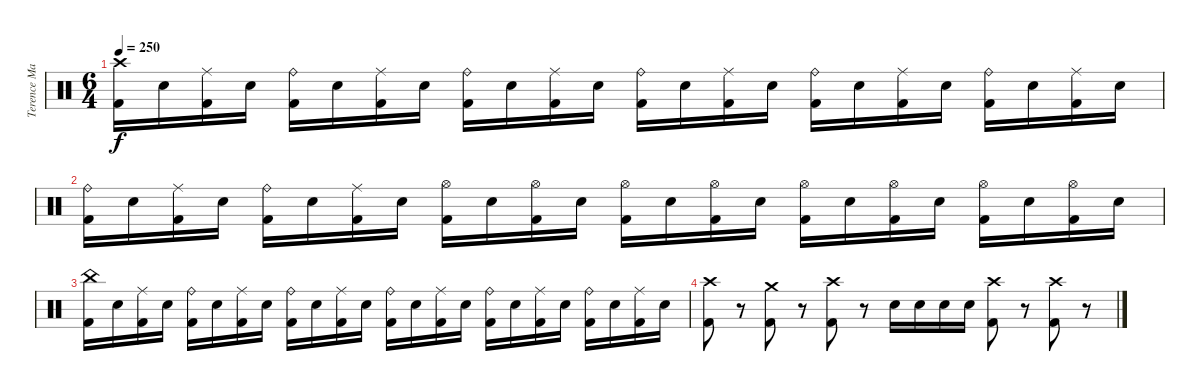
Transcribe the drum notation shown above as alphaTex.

\track ("Terence Manauis" "Terence Ma") {instrument percussion}
\staff {score}
\articulation defaults
\ts (6 4)
\tempo 250
\clef neutral
\ks c
("Crash high (hit)" "Kick (hit) 2").16{dy f} "Electric Snare (hit)".16 ("Ride (middle)" "Kick (hit) 2").16 "Electric Snare (hit)".16 ("Ride (bell)" "Kick (hit) 2").16 "Electric Snare (hit)".16 ("Ride (middle)" "Kick (hit) 2").16 "Electric Snare (hit)".16 ("Ride (bell)" "Kick (hit) 2").16 "Electric Snare (hit)".16 ("Ride (middle)" "Kick (hit) 2").16 "Electric Snare (hit)".16 ("Ride (bell)" "Kick (hit) 2").16 "Electric Snare (hit)".16 ("Ride (middle)" "Kick (hit) 2").16 "Electric Snare (hit)".16 ("Ride (bell)" "Kick (hit) 2").16 "Electric Snare (hit)".16 ("Ride (middle)" "Kick (hit) 2").16 "Electric Snare (hit)".16 ("Ride (bell)" "Kick (hit) 2").16 "Electric Snare (hit)".16 ("Ride (middle)" "Kick (hit) 2").16 "Electric Snare (hit)".16 |
("Ride (bell)" "Kick (hit) 2").16 "Electric Snare (hit)".16 ("Ride (middle)" "Kick (hit) 2").16 "Electric Snare (hit)".16 ("Ride (bell)" "Kick (hit) 2").16 "Electric Snare (hit)".16 ("Ride (middle)" "Kick (hit) 2").16 "Electric Snare (hit)".16 ("Hi-Hat (open)" "Kick (hit) 2").16 "Electric Snare (hit)".16 ("Hi-Hat (open)" "Kick (hit) 2").16 "Electric Snare (hit)".16 ("Hi-Hat (open)" "Kick (hit) 2").16 "Electric Snare (hit)".16 ("Hi-Hat (open)" "Kick (hit) 2").16 "Electric Snare (hit)".16 ("Hi-Hat (open)" "Kick (hit) 2").16 "Electric Snare (hit)".16 ("Hi-Hat (open)" "Kick (hit) 2").16 "Electric Snare (hit)".16 ("Hi-Hat (open)" "Kick (hit) 2").16 "Electric Snare (hit)".16 ("Hi-Hat (open)" "Kick (hit) 2").16 "Electric Snare (hit)".16 |
("China (hit)" "Kick (hit) 2").16 "Electric Snare (hit)".16 ("Ride (middle)" "Kick (hit) 2").16 "Electric Snare (hit)".16 ("Ride (bell)" "Kick (hit) 2").16 "Electric Snare (hit)".16 ("Ride (middle)" "Kick (hit) 2").16 "Electric Snare (hit)".16 ("Ride (bell)" "Kick (hit) 2").16 "Electric Snare (hit)".16 ("Ride (middle)" "Kick (hit) 2").16 "Electric Snare (hit)".16 ("Ride (bell)" "Kick (hit) 2").16 "Electric Snare (hit)".16 ("Ride (middle)" "Kick (hit) 2").16 "Electric Snare (hit)".16 ("Ride (bell)" "Kick (hit) 2").16 "Electric Snare (hit)".16 ("Ride (middle)" "Kick (hit) 2").16 "Electric Snare (hit)".16 ("Ride (bell)" "Kick (hit) 2").16 "Electric Snare (hit)".16 ("Ride (middle)" "Kick (hit) 2").16 "Electric Snare (hit)".16 |
("Crash high (hit)" "Kick (hit) 2").8{volume 12} r.8{volume 0} ("Crash medium (hit)" "Kick (hit) 2").8{volume 12} r.8{volume 0} ("Crash high (hit)" "Kick (hit) 2").8{volume 12} r.8{volume 0} "Electric Snare (hit)".16{volume 12} "Electric Snare (hit)".16 "Electric Snare (hit)".16 "Electric Snare (hit)".16 ("Crash high (hit)" "Kick (hit) 2").8{volume 12} r.8{volume 0} ("Crash high (hit)" "Kick (hit) 2").8{volume 12} r.8{volume 0}
